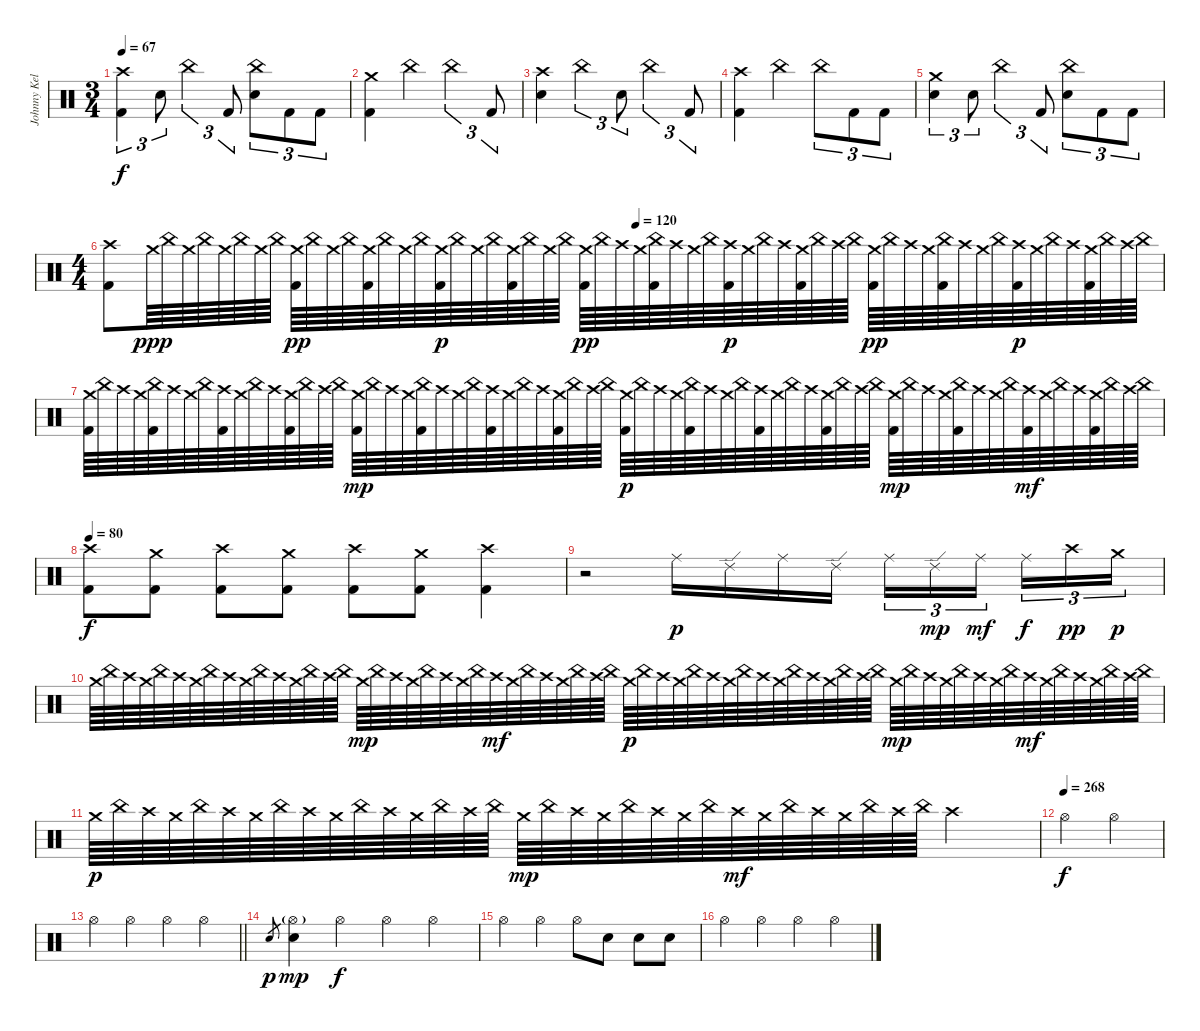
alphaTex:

\track ("Johnny Kelly" "Johnny Kel") {instrument percussion}
\staff {score}
\articulation defaults
\ts (3 4)
\tempo 67
\clef neutral
\ks c
("Crash high (hit)" "Kick (hit) 2").4{tu (3 2) dy f} "Electric Snare (hit)".8{tu (3 2)} "China (hit)".4{tu (3 2)} "Kick (hit) 2".8{tu (3 2)} ("China (hit)" "Electric Snare (hit)").8{tu (3 2)} "Kick (hit) 2".8{tu (3 2)} "Kick (hit) 2".8{tu (3 2)} |
("Crash medium (hit)" "Kick (hit) 2").4 "China (hit)".4 "China (hit)".4{tu (3 2)} "Kick (hit) 2".8{tu (3 2)} |
("Crash high (hit)" "Electric Snare (hit)").4 "China (hit)".4{tu (3 2)} "Electric Snare (hit)".8{tu (3 2)} "China (hit)".4{tu (3 2)} "Kick (hit) 2".8{tu (3 2)} |
("Crash high (hit)" "Kick (hit) 2").4 "China (hit)".4 "China (hit)".8{tu (3 2)} "Kick (hit) 2".8{tu (3 2)} "Kick (hit) 2".8{tu (3 2)} |
("Crash medium (hit)" "Electric Snare (hit)").4{tu (3 2)} "Electric Snare (hit)".8{tu (3 2)} "China (hit)".4{tu (3 2)} "Kick (hit) 2".8{tu (3 2)} ("China (hit)" "Electric Snare (hit)").8{tu (3 2)} "Kick (hit) 2".8{tu (3 2)} "Kick (hit) 2".8{tu (3 2)} |
\ts (4 4)
\tempo (120 0.5)
("Crash high (hit)" "Kick (hit) 2").8 "Crash medium (hit)".64{dy ppp} "China (hit)".64 "Crash medium (hit)".64 "China (hit)".64 "Crash medium (hit)".64 "China (hit)".64 "Crash medium (hit)".64 "China (hit)".64 ("Crash medium (hit)" "Kick (hit) 2").64{dy pp} "China (hit)".64 "Crash medium (hit)".64 "China (hit)".64 ("Crash medium (hit)" "Kick (hit) 2").64 "China (hit)".64 "Crash medium (hit)".64 "China (hit)".64 ("Crash medium (hit)" "Kick (hit) 2").64{dy p} "China (hit)".64 "Crash medium (hit)".64 "China (hit)".64 ("Crash medium (hit)" "Kick (hit) 2").64 "China (hit)".64 "Crash medium (hit)".64 "China (hit)".64 ("Crash medium (hit)" "Kick (hit) 2").64{dy pp} "China (hit)".64 "Crash high (hit)".64 "Crash medium (hit)".64 ("China (hit)" "Kick (hit) 2").64 "Crash high (hit)".64 "Crash medium (hit)".64 "China (hit)".64 ("Crash high (hit)" "Kick (hit) 2").64{dy p} "Crash medium (hit)".64 "China (hit)".64 "Crash high (hit)".64 ("Crash medium (hit)" "Kick (hit) 2").64 "China (hit)".64 "Crash high (hit)".64 "China (hit)".64 ("Crash medium (hit)" "Kick (hit) 2").64{dy pp} "China (hit)".64 "Crash high (hit)".64 "Crash medium (hit)".64 ("China (hit)" "Kick (hit) 2").64 "Crash high (hit)".64 "Crash medium (hit)".64 "China (hit)".64 ("Crash high (hit)" "Kick (hit) 2").64{dy p} "Crash medium (hit)".64 "China (hit)".64 "Crash high (hit)".64 ("Crash medium (hit)" "Kick (hit) 2").64 "China (hit)".64 "Crash high (hit)".64 "China (hit)".64 |
("Crash medium (hit)" "Kick (hit) 2").64 "China (hit)".64 "Crash high (hit)".64 "Crash medium (hit)".64 ("China (hit)" "Kick (hit) 2").64 "Crash high (hit)".64 "Crash medium (hit)".64 "China (hit)".64 ("Crash high (hit)" "Kick (hit) 2").64 "Crash medium (hit)".64 "China (hit)".64 "Crash high (hit)".64 ("Crash medium (hit)" "Kick (hit) 2").64 "China (hit)".64 "Crash high (hit)".64 "China (hit)".64 ("Crash medium (hit)" "Kick (hit) 2").64{dy mp} "China (hit)".64 "Crash high (hit)".64 "Crash medium (hit)".64 ("China (hit)" "Kick (hit) 2").64 "Crash high (hit)".64 "Crash medium (hit)".64 "China (hit)".64 ("Crash high (hit)" "Kick (hit) 2").64 "Crash medium (hit)".64 "China (hit)".64 "Crash high (hit)".64 ("Crash medium (hit)" "Kick (hit) 2").64 "China (hit)".64 "Crash high (hit)".64 "China (hit)".64 ("Crash medium (hit)" "Kick (hit) 2").64{dy p} "China (hit)".64 "Crash high (hit)".64 "Crash medium (hit)".64 ("China (hit)" "Kick (hit) 2").64 "Crash high (hit)".64 "Crash medium (hit)".64 "China (hit)".64 ("Crash high (hit)" "Kick (hit) 2").64 "Crash medium (hit)".64 "China (hit)".64 "Crash high (hit)".64 ("Crash medium (hit)" "Kick (hit) 2").64 "China (hit)".64 "Crash high (hit)".64 "China (hit)".64 ("Crash medium (hit)" "Kick (hit) 2").64{dy mp} "China (hit)".64 "Crash high (hit)".64 "Crash medium (hit)".64 ("China (hit)" "Kick (hit) 2").64 "Crash high (hit)".64 "Crash medium (hit)".64 "China (hit)".64 ("Crash high (hit)" "Kick (hit) 2").64{dy mf} "Crash medium (hit)".64 "China (hit)".64 "Crash high (hit)".64 ("Crash medium (hit)" "Kick (hit) 2").64 "China (hit)".64 "Crash high (hit)".64 "China (hit)".64 |
\tempo 80
("Crash high (hit)" "Kick (hit) 2").8{dy f} ("Crash medium (hit)" "Kick (hit) 2").8 ("Crash high (hit)" "Kick (hit) 2").8 ("Crash medium (hit)" "Kick (hit) 2").8 ("Crash high (hit)" "Kick (hit) 2").8 ("Crash medium (hit)" "Kick (hit) 2").8 ("Crash high (hit)" "Kick (hit) 2").4 |
r.2{volume 12} "Ride (middle)".16{dy p} "Ride (edge) 2".16 "Ride (middle)".16 "Ride (edge) 2".16 "Ride (middle)".16{tu (3 2)} "Ride (edge) 2".16{tu (3 2) dy mp} "Ride (middle)".16{tu (3 2) dy mf beam splitsecondary} "Ride (middle)".16{tu (3 2) dy f} "Crash high (hit)".16{tu (3 2) dy pp} "Crash medium (hit)".16{tu (3 2) dy p} |
"Crash medium (hit)".64 "China (hit)".64 "Crash high (hit)".64 "Crash medium (hit)".64 "China (hit)".64 "Crash high (hit)".64 "Crash medium (hit)".64 "China (hit)".64 "Crash high (hit)".64 "Crash medium (hit)".64 "China (hit)".64 "Crash high (hit)".64 "Crash medium (hit)".64 "China (hit)".64 "Crash high (hit)".64 "China (hit)".64 "Crash medium (hit)".64{dy mp} "China (hit)".64 "Crash high (hit)".64 "Crash medium (hit)".64 "China (hit)".64 "Crash high (hit)".64 "Crash medium (hit)".64 "China (hit)".64 "Crash high (hit)".64{dy mf} "Crash medium (hit)".64 "China (hit)".64 "Crash high (hit)".64 "Crash medium (hit)".64 "China (hit)".64 "Crash high (hit)".64 "China (hit)".64 "Crash medium (hit)".64{dy p} "China (hit)".64 "Crash high (hit)".64 "Crash medium (hit)".64 "China (hit)".64 "Crash high (hit)".64 "Crash medium (hit)".64 "China (hit)".64 "Crash high (hit)".64 "Crash medium (hit)".64 "China (hit)".64 "Crash high (hit)".64 "Crash medium (hit)".64 "China (hit)".64 "Crash high (hit)".64 "China (hit)".64 "Crash medium (hit)".64{dy mp} "China (hit)".64 "Crash high (hit)".64 "Crash medium (hit)".64 "China (hit)".64 "Crash high (hit)".64 "Crash medium (hit)".64 "China (hit)".64 "Crash high (hit)".64{dy mf} "Crash medium (hit)".64 "China (hit)".64 "Crash high (hit)".64 "Crash medium (hit)".64 "China (hit)".64 "Crash high (hit)".64 "China (hit)".64 |
"Crash medium (hit)".64{dy p} "China (hit)".64 "Crash high (hit)".64 "Crash medium (hit)".64 "China (hit)".64 "Crash high (hit)".64 "Crash medium (hit)".64 "China (hit)".64 "Crash high (hit)".64 "Crash medium (hit)".64 "China (hit)".64 "Crash high (hit)".64 "Crash medium (hit)".64 "China (hit)".64 "Crash high (hit)".64 "China (hit)".64 "Crash medium (hit)".64{dy mp} "China (hit)".64 "Crash high (hit)".64 "Crash medium (hit)".64 "China (hit)".64 "Crash high (hit)".64 "Crash medium (hit)".64 "China (hit)".64 "Crash high (hit)".64{dy mf} "Crash medium (hit)".64 "China (hit)".64 "Crash high (hit)".64 "Crash medium (hit)".64 "China (hit)".64 "Crash high (hit)".64 "China (hit)".64 "Crash high (hit)".2 |
\tempo (268)
"Hi-Hat (open)".2{dy f volume 16} "Hi-Hat (open)".2 |
\barLineRight lightlight "Hi-Hat (open)".4 "Hi-Hat (open)".4 "Hi-Hat (open)".4 "Hi-Hat (open)".4
|
\section ("" "")
"Electric Snare (hit)".8{gr dy p} ("Hi-Hat (open)"{g} "Electric Snare (hit)").4{dy mp} "Hi-Hat (open)".4{dy f} "Hi-Hat (open)".4 "Hi-Hat (open)".4 |
"Hi-Hat (open)".4 "Hi-Hat (open)".4 "Hi-Hat (open)".8 "Electric Snare (hit)".8 "Electric Snare (hit)".8 "Electric Snare (hit)".8 |
"Hi-Hat (open)".4 "Hi-Hat (open)".4 "Hi-Hat (open)".4 "Hi-Hat (open)".4
